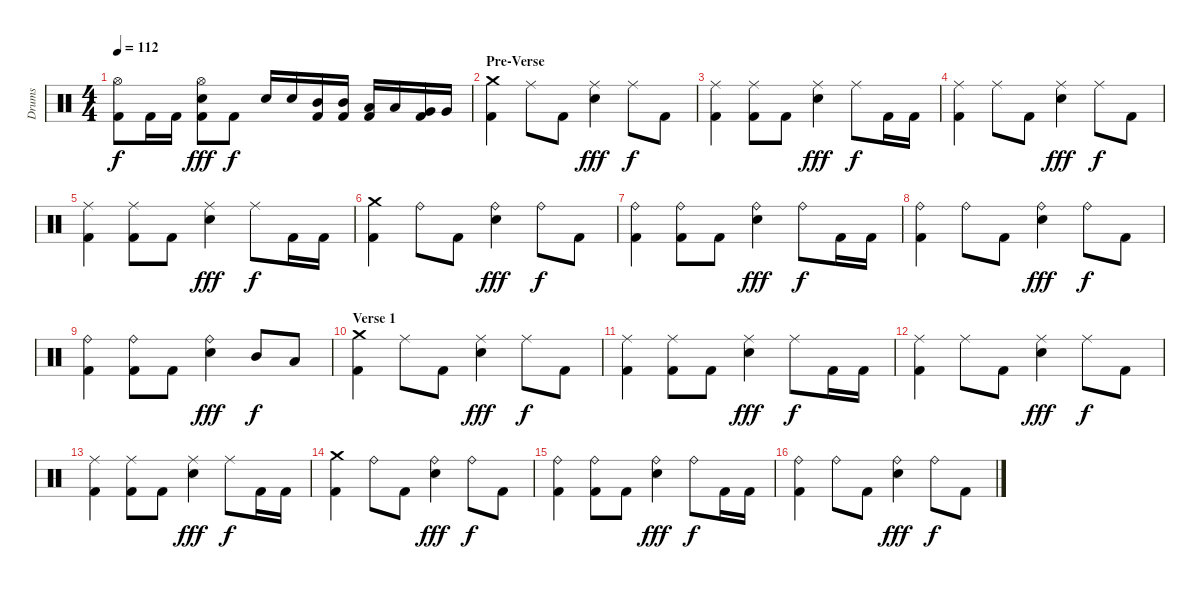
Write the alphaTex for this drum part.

\track ("Drums" "Drums") {instrument percussion}
\staff {score}
\articulation defaults
\ts (4 4)
\tempo 112
\clef neutral
\ks c
("Hi-Hat (open)" "Kick (hit) 2").8{dy f} "Kick (hit) 2".16 "Kick (hit) 2".16 ("Hi-Hat (open)" "Snare (hit) 2" "Kick (hit) 2").8{dy fff} "Kick (hit) 2".8{dy f} "Snare (hit) 2".16 "Snare (hit) 2".16 ("Mid Tom (hit)" "Kick (hit) 2").16 ("Mid Tom (hit)" "Kick (hit) 2").16 ("Low Tom (hit)" "Kick (hit) 2").16 "Low Tom (hit)".16 ("Very Low Tom (hit)" "Kick (hit) 2").16 "Very Low Tom (hit)".16 |
\section ("" "Pre-Verse")
("Crash medium (hit)" "Kick (hit) 2").4 "Ride (middle)".8 "Kick (hit) 2".8 ("Ride (middle)" "Snare (hit) 2").4{dy fff} "Ride (middle)".8{dy f} "Kick (hit) 2".8 |
("Ride (middle)" "Kick (hit) 2").4 ("Ride (middle)" "Kick (hit) 2").8 "Kick (hit) 2".8 ("Ride (middle)" "Snare (hit) 2").4{dy fff} "Ride (middle)".8{dy f} "Kick (hit) 2".16 "Kick (hit) 2".16 |
("Ride (middle)" "Kick (hit) 2").4 "Ride (middle)".8 "Kick (hit) 2".8 ("Ride (middle)" "Snare (hit) 2").4{dy fff} "Ride (middle)".8{dy f} "Kick (hit) 2".8 |
("Ride (middle)" "Kick (hit) 2").4 ("Ride (middle)" "Kick (hit) 2").8 "Kick (hit) 2".8 ("Ride (middle)" "Snare (hit) 2").4{dy fff} "Ride (middle)".8{dy f} "Kick (hit) 2".16 "Kick (hit) 2".16 |
("Crash medium (hit)" "Kick (hit) 2").4 "Ride (bell)".8 "Kick (hit) 2".8 ("Ride (bell)" "Snare (hit) 2").4{dy fff} "Ride (bell)".8{dy f} "Kick (hit) 2".8 |
("Ride (bell)" "Kick (hit) 2").4 ("Ride (bell)" "Kick (hit) 2").8 "Kick (hit) 2".8 ("Ride (bell)" "Snare (hit) 2").4{dy fff} "Ride (bell)".8{dy f} "Kick (hit) 2".16 "Kick (hit) 2".16 |
("Ride (bell)" "Kick (hit) 2").4 "Ride (bell)".8 "Kick (hit) 2".8 ("Ride (bell)" "Snare (hit) 2").4{dy fff} "Ride (bell)".8{dy f} "Kick (hit) 2".8 |
("Ride (bell)" "Kick (hit) 2").4 ("Ride (bell)" "Kick (hit) 2").8 "Kick (hit) 2".8 ("Ride (bell)" "Snare (hit) 2").4{dy fff} "Mid Tom (hit)".8{dy f} "Low Tom (hit)".8 |
\section ("" "Verse 1")
("Crash medium (hit)" "Kick (hit) 2").4 "Ride (middle)".8 "Kick (hit) 2".8 ("Ride (middle)" "Snare (hit) 2").4{dy fff} "Ride (middle)".8{dy f} "Kick (hit) 2".8 |
("Ride (middle)" "Kick (hit) 2").4 ("Ride (middle)" "Kick (hit) 2").8 "Kick (hit) 2".8 ("Ride (middle)" "Snare (hit) 2").4{dy fff} "Ride (middle)".8{dy f} "Kick (hit) 2".16 "Kick (hit) 2".16 |
("Ride (middle)" "Kick (hit) 2").4 "Ride (middle)".8 "Kick (hit) 2".8 ("Ride (middle)" "Snare (hit) 2").4{dy fff} "Ride (middle)".8{dy f} "Kick (hit) 2".8 |
("Ride (middle)" "Kick (hit) 2").4 ("Ride (middle)" "Kick (hit) 2").8 "Kick (hit) 2".8 ("Ride (middle)" "Snare (hit) 2").4{dy fff} "Ride (middle)".8{dy f} "Kick (hit) 2".16 "Kick (hit) 2".16 |
("Crash medium (hit)" "Kick (hit) 2").4 "Ride (bell)".8 "Kick (hit) 2".8 ("Ride (bell)" "Snare (hit) 2").4{dy fff} "Ride (bell)".8{dy f} "Kick (hit) 2".8 |
("Ride (bell)" "Kick (hit) 2").4 ("Ride (bell)" "Kick (hit) 2").8 "Kick (hit) 2".8 ("Ride (bell)" "Snare (hit) 2").4{dy fff} "Ride (bell)".8{dy f} "Kick (hit) 2".16 "Kick (hit) 2".16 |
("Ride (bell)" "Kick (hit) 2").4 "Ride (bell)".8 "Kick (hit) 2".8 ("Ride (bell)" "Snare (hit) 2").4{dy fff} "Ride (bell)".8{dy f} "Kick (hit) 2".8
